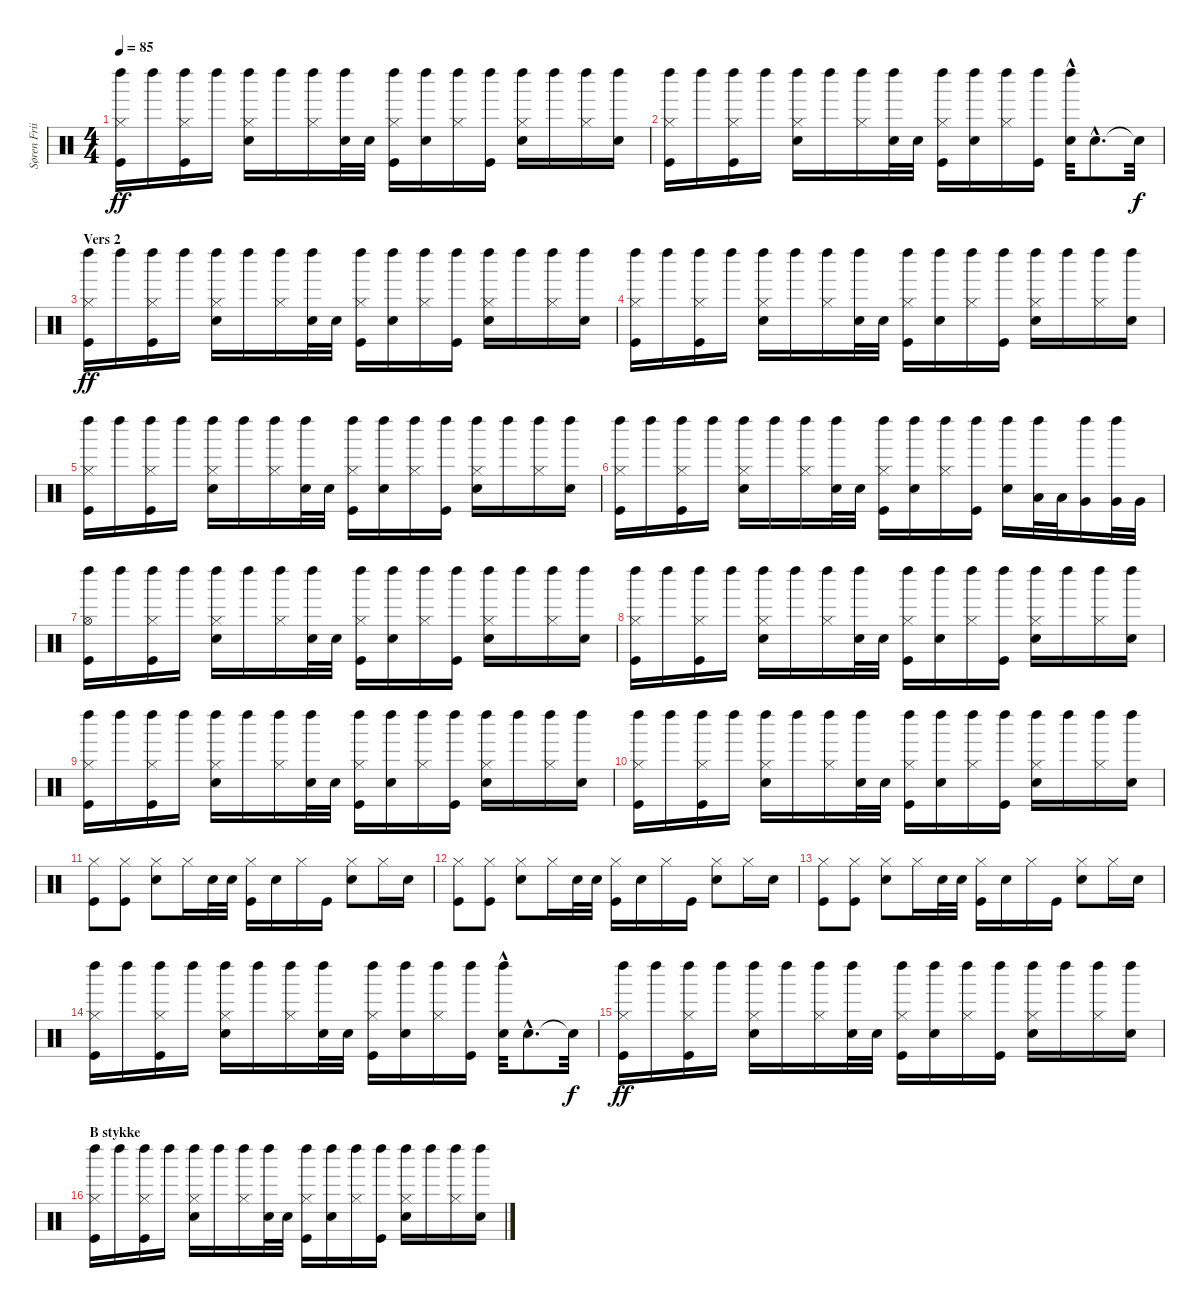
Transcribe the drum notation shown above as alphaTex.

\track ("Søren Friis (Drums)" "Søren Frii") {instrument percussion}
\staff {score}
\articulation defaults
\ts (4 4)
\tempo 85
\clef neutral
\ks c
("Kick (hit)" "Hi-Hat (closed)" "Left Maraca (hit)").16{dy ff} "Left Maraca (hit)".16 ("Kick (hit)" "Hi-Hat (closed)" "Left Maraca (hit)").16 "Left Maraca (hit)".16 ("Snare (hit) 2" "Hi-Hat (closed)" "Left Maraca (hit)").16 "Left Maraca (hit)".16 ("Hi-Hat (closed)" "Left Maraca (hit)").16 ("Snare (hit) 2" "Left Maraca (hit)").32 "Snare (hit) 2".32 ("Kick (hit)" "Hi-Hat (closed)" "Left Maraca (hit)").16 ("Snare (hit) 2" "Left Maraca (hit)").16 ("Hi-Hat (closed)" "Left Maraca (hit)").16 ("Kick (hit)" "Left Maraca (hit)").16 ("Snare (hit) 2" "Hi-Hat (closed)" "Left Maraca (hit)").16 "Left Maraca (hit)".16 ("Hi-Hat (closed)" "Left Maraca (hit)").16 ("Snare (hit) 2" "Left Maraca (hit)").16 |
("Kick (hit)" "Hi-Hat (closed)" "Left Maraca (hit)").16 "Left Maraca (hit)".16 ("Kick (hit)" "Hi-Hat (closed)" "Left Maraca (hit)").16 "Left Maraca (hit)".16 ("Snare (hit) 2" "Hi-Hat (closed)" "Left Maraca (hit)").16 "Left Maraca (hit)".16 ("Hi-Hat (closed)" "Left Maraca (hit)").16 ("Snare (hit) 2" "Left Maraca (hit)").32 "Snare (hit) 2".32 ("Kick (hit)" "Hi-Hat (closed)" "Left Maraca (hit)").16 ("Snare (hit) 2" "Left Maraca (hit)").16 ("Hi-Hat (closed)" "Left Maraca (hit)").16 ("Kick (hit)" "Left Maraca (hit)").16 ("Snare (hit) 2" "Left Maraca (hit)"{hac}).32 "Snare (hit) 2"{hac}.8{d} "Snare (hit)"{t}.32{dy f} |
\section ("" "Vers 2")
("Kick (hit)" "Hi-Hat (closed)" "Left Maraca (hit)").16{dy ff} "Left Maraca (hit)".16 ("Kick (hit)" "Hi-Hat (closed)" "Left Maraca (hit)").16 "Left Maraca (hit)".16 ("Snare (hit) 2" "Hi-Hat (closed)" "Left Maraca (hit)").16 "Left Maraca (hit)".16 ("Hi-Hat (closed)" "Left Maraca (hit)").16 ("Snare (hit) 2" "Left Maraca (hit)").32 "Snare (hit) 2".32 ("Kick (hit)" "Hi-Hat (closed)" "Left Maraca (hit)").16 ("Snare (hit) 2" "Left Maraca (hit)").16 ("Hi-Hat (closed)" "Left Maraca (hit)").16 ("Kick (hit)" "Left Maraca (hit)").16 ("Snare (hit) 2" "Hi-Hat (closed)" "Left Maraca (hit)").16 "Left Maraca (hit)".16 ("Hi-Hat (closed)" "Left Maraca (hit)").16 ("Snare (hit) 2" "Left Maraca (hit)").16 |
("Kick (hit)" "Hi-Hat (closed)" "Left Maraca (hit)").16 "Left Maraca (hit)".16 ("Kick (hit)" "Hi-Hat (closed)" "Left Maraca (hit)").16 "Left Maraca (hit)".16 ("Snare (hit) 2" "Hi-Hat (closed)" "Left Maraca (hit)").16 "Left Maraca (hit)".16 ("Hi-Hat (closed)" "Left Maraca (hit)").16 ("Snare (hit) 2" "Left Maraca (hit)").32 "Snare (hit) 2".32 ("Kick (hit)" "Hi-Hat (closed)" "Left Maraca (hit)").16 ("Snare (hit) 2" "Left Maraca (hit)").16 ("Hi-Hat (closed)" "Left Maraca (hit)").16 ("Kick (hit)" "Left Maraca (hit)").16 ("Snare (hit) 2" "Hi-Hat (closed)" "Left Maraca (hit)").16 "Left Maraca (hit)".16 ("Hi-Hat (closed)" "Left Maraca (hit)").16 ("Snare (hit) 2" "Left Maraca (hit)").16 |
("Kick (hit)" "Hi-Hat (closed)" "Left Maraca (hit)").16 "Left Maraca (hit)".16 ("Kick (hit)" "Hi-Hat (closed)" "Left Maraca (hit)").16 "Left Maraca (hit)".16 ("Snare (hit) 2" "Hi-Hat (closed)" "Left Maraca (hit)").16 "Left Maraca (hit)".16 ("Hi-Hat (closed)" "Left Maraca (hit)").16 ("Snare (hit) 2" "Left Maraca (hit)").32 "Snare (hit) 2".32 ("Kick (hit)" "Hi-Hat (closed)" "Left Maraca (hit)").16 ("Snare (hit) 2" "Left Maraca (hit)").16 ("Hi-Hat (closed)" "Left Maraca (hit)").16 ("Kick (hit)" "Left Maraca (hit)").16 ("Snare (hit) 2" "Hi-Hat (closed)" "Left Maraca (hit)").16 "Left Maraca (hit)".16 ("Hi-Hat (closed)" "Left Maraca (hit)").16 ("Snare (hit) 2" "Left Maraca (hit)").16 |
("Kick (hit)" "Hi-Hat (closed)" "Left Maraca (hit)").16 "Left Maraca (hit)".16 ("Kick (hit)" "Hi-Hat (closed)" "Left Maraca (hit)").16 "Left Maraca (hit)".16 ("Snare (hit) 2" "Hi-Hat (closed)" "Left Maraca (hit)").16 "Left Maraca (hit)".16 ("Hi-Hat (closed)" "Left Maraca (hit)").16 ("Snare (hit) 2" "Left Maraca (hit)").32 "Snare (hit) 2".32 ("Kick (hit)" "Hi-Hat (closed)" "Left Maraca (hit)").16 ("Snare (hit) 2" "Left Maraca (hit)").16 ("Hi-Hat (closed)" "Left Maraca (hit)").16 ("Kick (hit)" "Left Maraca (hit)").16 ("Snare (hit) 2" "Left Maraca (hit)").16 ("Low Tom (hit)" "Left Maraca (hit)").32 "Low Tom (hit)".32 ("Very Low Tom (hit)" "Left Maraca (hit)").16 ("Very Low Tom (hit)" "Left Maraca (hit)").32 "Very Low Tom (hit)".32 |
("Kick (hit)" "Hi-Hat (open)" "Left Maraca (hit)").16 "Left Maraca (hit)".16 ("Kick (hit)" "Hi-Hat (closed)" "Left Maraca (hit)").16 "Left Maraca (hit)".16 ("Snare (hit) 2" "Hi-Hat (closed)" "Left Maraca (hit)").16 "Left Maraca (hit)".16 ("Hi-Hat (closed)" "Left Maraca (hit)").16 ("Snare (hit) 2" "Left Maraca (hit)").32 "Snare (hit) 2".32 ("Kick (hit)" "Hi-Hat (closed)" "Left Maraca (hit)").16 ("Snare (hit) 2" "Left Maraca (hit)").16 ("Hi-Hat (closed)" "Left Maraca (hit)").16 ("Kick (hit)" "Left Maraca (hit)").16 ("Snare (hit) 2" "Hi-Hat (closed)" "Left Maraca (hit)").16 "Left Maraca (hit)".16 ("Hi-Hat (closed)" "Left Maraca (hit)").16 ("Snare (hit) 2" "Left Maraca (hit)").16 |
("Kick (hit)" "Hi-Hat (closed)" "Left Maraca (hit)").16 "Left Maraca (hit)".16 ("Kick (hit)" "Hi-Hat (closed)" "Left Maraca (hit)").16 "Left Maraca (hit)".16 ("Snare (hit) 2" "Hi-Hat (closed)" "Left Maraca (hit)").16 "Left Maraca (hit)".16 ("Hi-Hat (closed)" "Left Maraca (hit)").16 ("Snare (hit) 2" "Left Maraca (hit)").32 "Snare (hit) 2".32 ("Kick (hit)" "Hi-Hat (closed)" "Left Maraca (hit)").16 ("Snare (hit) 2" "Left Maraca (hit)").16 ("Hi-Hat (closed)" "Left Maraca (hit)").16 ("Kick (hit)" "Left Maraca (hit)").16 ("Snare (hit) 2" "Hi-Hat (closed)" "Left Maraca (hit)").16 "Left Maraca (hit)".16 ("Hi-Hat (closed)" "Left Maraca (hit)").16 ("Snare (hit) 2" "Left Maraca (hit)").16 |
("Kick (hit)" "Hi-Hat (closed)" "Left Maraca (hit)").16 "Left Maraca (hit)".16 ("Kick (hit)" "Hi-Hat (closed)" "Left Maraca (hit)").16 "Left Maraca (hit)".16 ("Snare (hit) 2" "Hi-Hat (closed)" "Left Maraca (hit)").16 "Left Maraca (hit)".16 ("Hi-Hat (closed)" "Left Maraca (hit)").16 ("Snare (hit) 2" "Left Maraca (hit)").32 "Snare (hit) 2".32 ("Kick (hit)" "Hi-Hat (closed)" "Left Maraca (hit)").16 ("Snare (hit) 2" "Left Maraca (hit)").16 ("Hi-Hat (closed)" "Left Maraca (hit)").16 ("Kick (hit)" "Left Maraca (hit)").16 ("Snare (hit) 2" "Hi-Hat (closed)" "Left Maraca (hit)").16 "Left Maraca (hit)".16 ("Hi-Hat (closed)" "Left Maraca (hit)").16 ("Snare (hit) 2" "Left Maraca (hit)").16 |
("Kick (hit)" "Hi-Hat (closed)" "Left Maraca (hit)").16 "Left Maraca (hit)".16 ("Kick (hit)" "Hi-Hat (closed)" "Left Maraca (hit)").16 "Left Maraca (hit)".16 ("Snare (hit) 2" "Hi-Hat (closed)" "Left Maraca (hit)").16 "Left Maraca (hit)".16 ("Hi-Hat (closed)" "Left Maraca (hit)").16 ("Snare (hit) 2" "Left Maraca (hit)").32 "Snare (hit) 2".32 ("Kick (hit)" "Hi-Hat (closed)" "Left Maraca (hit)").16 ("Snare (hit) 2" "Left Maraca (hit)").16 ("Hi-Hat (closed)" "Left Maraca (hit)").16 ("Kick (hit)" "Left Maraca (hit)").16 ("Snare (hit) 2" "Hi-Hat (closed)" "Left Maraca (hit)").16 "Left Maraca (hit)".16 ("Hi-Hat (closed)" "Left Maraca (hit)").16 ("Snare (hit) 2" "Left Maraca (hit)").16 |
("Kick (hit)" "Hi-Hat (closed)").8 ("Kick (hit)" "Hi-Hat (closed)").8 ("Snare (hit) 2" "Hi-Hat (closed)").8 "Hi-Hat (closed)".16 "Snare (hit) 2".32 "Snare (hit) 2".32 ("Kick (hit)" "Hi-Hat (closed)").16 "Snare (hit) 2".16 "Hi-Hat (closed)".16 "Kick (hit)".16 ("Snare (hit) 2" "Hi-Hat (closed)").8 "Hi-Hat (closed)".16 "Snare (hit) 2".16 |
("Kick (hit)" "Hi-Hat (closed)").8 ("Kick (hit)" "Hi-Hat (closed)").8 ("Snare (hit) 2" "Hi-Hat (closed)").8 "Hi-Hat (closed)".16 "Snare (hit) 2".32 "Snare (hit) 2".32 ("Kick (hit)" "Hi-Hat (closed)").16 "Snare (hit) 2".16 "Hi-Hat (closed)".16 "Kick (hit)".16 ("Snare (hit) 2" "Hi-Hat (closed)").8 "Hi-Hat (closed)".16 "Snare (hit) 2".16 |
("Kick (hit)" "Hi-Hat (closed)").8 ("Kick (hit)" "Hi-Hat (closed)").8 ("Snare (hit) 2" "Hi-Hat (closed)").8 "Hi-Hat (closed)".16 "Snare (hit) 2".32 "Snare (hit) 2".32 ("Kick (hit)" "Hi-Hat (closed)").16 "Snare (hit) 2".16 "Hi-Hat (closed)".16 "Kick (hit)".16 ("Snare (hit) 2" "Hi-Hat (closed)").8 "Hi-Hat (closed)".16 "Snare (hit) 2".16 |
("Kick (hit)" "Hi-Hat (closed)" "Left Maraca (hit)").16 "Left Maraca (hit)".16 ("Kick (hit)" "Hi-Hat (closed)" "Left Maraca (hit)").16 "Left Maraca (hit)".16 ("Snare (hit) 2" "Hi-Hat (closed)" "Left Maraca (hit)").16 "Left Maraca (hit)".16 ("Hi-Hat (closed)" "Left Maraca (hit)").16 ("Snare (hit) 2" "Left Maraca (hit)").32 "Snare (hit) 2".32 ("Kick (hit)" "Hi-Hat (closed)" "Left Maraca (hit)").16 ("Snare (hit) 2" "Left Maraca (hit)").16 ("Hi-Hat (closed)" "Left Maraca (hit)").16 ("Kick (hit)" "Left Maraca (hit)").16 ("Snare (hit) 2" "Left Maraca (hit)"{hac}).32 "Snare (hit) 2"{hac}.8{d} "Snare (hit)"{t}.32{dy f} |
("Kick (hit)" "Hi-Hat (closed)" "Left Maraca (hit)").16{dy ff} "Left Maraca (hit)".16 ("Kick (hit)" "Hi-Hat (closed)" "Left Maraca (hit)").16 "Left Maraca (hit)".16 ("Snare (hit) 2" "Hi-Hat (closed)" "Left Maraca (hit)").16 "Left Maraca (hit)".16 ("Hi-Hat (closed)" "Left Maraca (hit)").16 ("Snare (hit) 2" "Left Maraca (hit)").32 "Snare (hit) 2".32 ("Kick (hit)" "Hi-Hat (closed)" "Left Maraca (hit)").16 ("Snare (hit) 2" "Left Maraca (hit)").16 ("Hi-Hat (closed)" "Left Maraca (hit)").16 ("Kick (hit)" "Left Maraca (hit)").16 ("Snare (hit) 2" "Hi-Hat (closed)" "Left Maraca (hit)").16 "Left Maraca (hit)".16 ("Hi-Hat (closed)" "Left Maraca (hit)").16 ("Snare (hit) 2" "Left Maraca (hit)").16 |
\section ("" "B stykke")
("Kick (hit)" "Hi-Hat (closed)" "Left Maraca (hit)").16 "Left Maraca (hit)".16 ("Kick (hit)" "Hi-Hat (closed)" "Left Maraca (hit)").16 "Left Maraca (hit)".16 ("Snare (hit) 2" "Hi-Hat (closed)" "Left Maraca (hit)").16 "Left Maraca (hit)".16 ("Hi-Hat (closed)" "Left Maraca (hit)").16 ("Snare (hit) 2" "Left Maraca (hit)").32 "Snare (hit) 2".32 ("Kick (hit)" "Hi-Hat (closed)" "Left Maraca (hit)").16 ("Snare (hit) 2" "Left Maraca (hit)").16 ("Hi-Hat (closed)" "Left Maraca (hit)").16 ("Kick (hit)" "Left Maraca (hit)").16 ("Snare (hit) 2" "Hi-Hat (closed)" "Left Maraca (hit)").16 "Left Maraca (hit)".16 ("Hi-Hat (closed)" "Left Maraca (hit)").16 ("Snare (hit) 2" "Left Maraca (hit)").16
